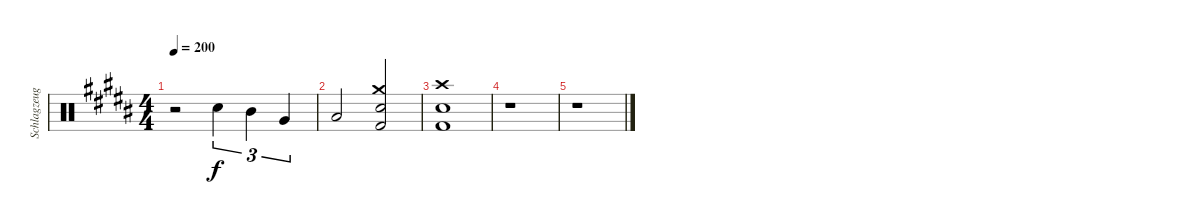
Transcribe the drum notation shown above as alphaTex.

\track ("Schlagzeug" "Schlagzeug") {instrument percussion}
\staff {score}
\articulation defaults
\ts (4 4)
\tempo 200
\clef neutral
\ks b
r.2{dy f} "Snare (hit) 2".4{tu (3 2)} "Mid Tom (hit)".4{tu (3 2)} "Very Low Tom (hit)".4{tu (3 2)} |
"Low Floor Tom (hit)".2 ("Crash medium (hit)" "Snare (hit) 2" "Kick (hit) 2").2 |
("Crash high (hit)" "Snare (hit) 2" "Kick (hit) 2").1 |
r.1 |
r.1
